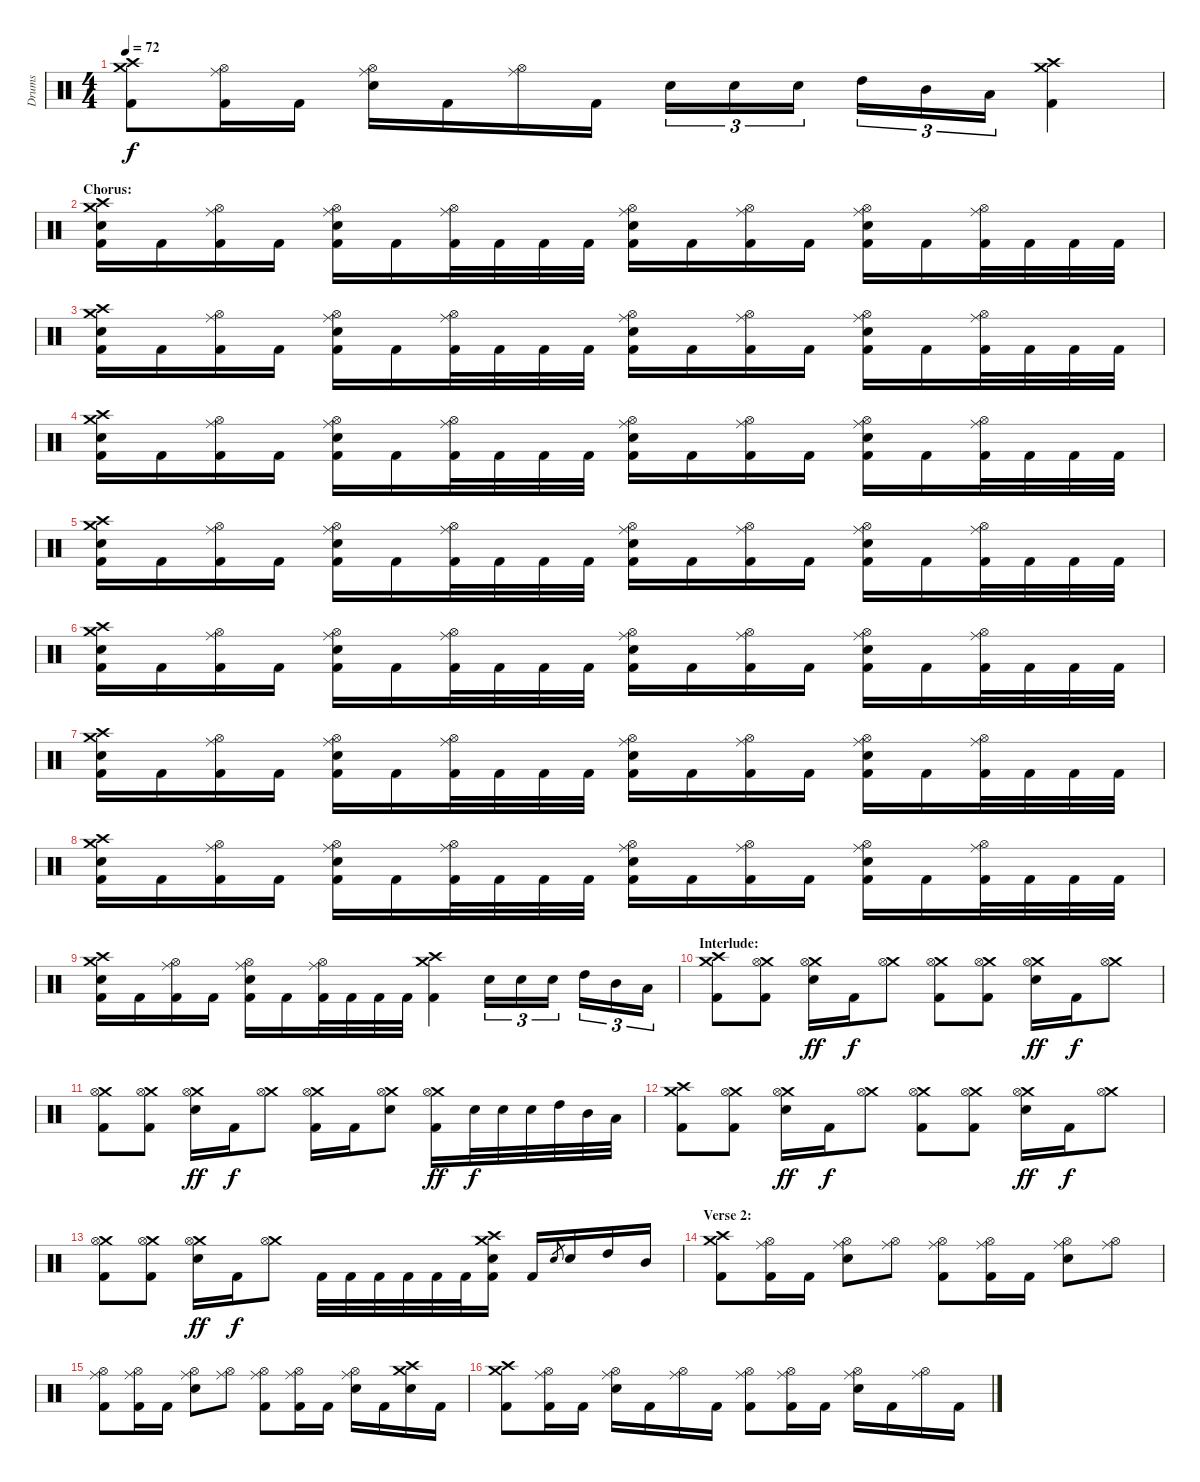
\track ("Drums" "Drums") {instrument percussion}
\staff {score}
\articulation defaults
\ts (4 4)
\tempo 72
\clef neutral
\ks c
("Crash medium (hit)" "Crash high (hit)" "Kick (hit) 2").8{dy f} ("Ride (middle)" "Hi-Hat (open)" "Kick (hit) 2").16 "Kick (hit) 2".16 ("Ride (middle)" "Hi-Hat (open)" "Electric Snare (hit)").16 "Kick (hit) 2".16 ("Ride (middle)" "Hi-Hat (open)").16 "Kick (hit) 2".16 "Electric Snare (hit)".16{tu (3 2)} "Electric Snare (hit)".16{tu (3 2)} "Electric Snare (hit)".16{tu (3 2)} "High Tom (hit)".16{tu (3 2)} "Mid Tom (hit)".16{tu (3 2)} "Low Tom (hit)".16{tu (3 2)} ("Crash medium (hit)" "Crash high (hit)" "Kick (hit) 2").4 |
\section ("" "Chorus:")
("Crash medium (hit)" "Crash high (hit)" "Electric Snare (hit)" "Kick (hit) 2").16 "Kick (hit) 2".16 ("Ride (middle)" "Hi-Hat (open)" "Kick (hit) 2").16 "Kick (hit) 2".16 ("Ride (middle)" "Hi-Hat (open)" "Electric Snare (hit)" "Kick (hit) 2").16 "Kick (hit) 2".16 ("Ride (middle)" "Hi-Hat (open)" "Kick (hit) 2").32 "Kick (hit) 2".32 "Kick (hit) 2".32 "Kick (hit) 2".32 ("Ride (middle)" "Hi-Hat (open)" "Electric Snare (hit)" "Kick (hit) 2").16 "Kick (hit) 2".16 ("Ride (middle)" "Hi-Hat (open)" "Kick (hit) 2").16 "Kick (hit) 2".16 ("Ride (middle)" "Hi-Hat (open)" "Electric Snare (hit)" "Kick (hit) 2").16 "Kick (hit) 2".16 ("Ride (middle)" "Hi-Hat (open)" "Kick (hit) 2").32 "Kick (hit) 2".32 "Kick (hit) 2".32 "Kick (hit) 2".32 |
("Crash medium (hit)" "Crash high (hit)" "Electric Snare (hit)" "Kick (hit) 2").16 "Kick (hit) 2".16 ("Ride (middle)" "Hi-Hat (open)" "Kick (hit) 2").16 "Kick (hit) 2".16 ("Ride (middle)" "Hi-Hat (open)" "Electric Snare (hit)" "Kick (hit) 2").16 "Kick (hit) 2".16 ("Ride (middle)" "Hi-Hat (open)" "Kick (hit) 2").32 "Kick (hit) 2".32 "Kick (hit) 2".32 "Kick (hit) 2".32 ("Ride (middle)" "Hi-Hat (open)" "Electric Snare (hit)" "Kick (hit) 2").16 "Kick (hit) 2".16 ("Ride (middle)" "Hi-Hat (open)" "Kick (hit) 2").16 "Kick (hit) 2".16 ("Ride (middle)" "Hi-Hat (open)" "Electric Snare (hit)" "Kick (hit) 2").16 "Kick (hit) 2".16 ("Ride (middle)" "Hi-Hat (open)" "Kick (hit) 2").32 "Kick (hit) 2".32 "Kick (hit) 2".32 "Kick (hit) 2".32 |
("Crash medium (hit)" "Crash high (hit)" "Electric Snare (hit)" "Kick (hit) 2").16 "Kick (hit) 2".16 ("Ride (middle)" "Hi-Hat (open)" "Kick (hit) 2").16 "Kick (hit) 2".16 ("Ride (middle)" "Hi-Hat (open)" "Electric Snare (hit)" "Kick (hit) 2").16 "Kick (hit) 2".16 ("Ride (middle)" "Hi-Hat (open)" "Kick (hit) 2").32 "Kick (hit) 2".32 "Kick (hit) 2".32 "Kick (hit) 2".32 ("Ride (middle)" "Hi-Hat (open)" "Electric Snare (hit)" "Kick (hit) 2").16 "Kick (hit) 2".16 ("Ride (middle)" "Hi-Hat (open)" "Kick (hit) 2").16 "Kick (hit) 2".16 ("Ride (middle)" "Hi-Hat (open)" "Electric Snare (hit)" "Kick (hit) 2").16 "Kick (hit) 2".16 ("Ride (middle)" "Hi-Hat (open)" "Kick (hit) 2").32 "Kick (hit) 2".32 "Kick (hit) 2".32 "Kick (hit) 2".32 |
("Crash medium (hit)" "Crash high (hit)" "Electric Snare (hit)" "Kick (hit) 2").16 "Kick (hit) 2".16 ("Ride (middle)" "Hi-Hat (open)" "Kick (hit) 2").16 "Kick (hit) 2".16 ("Ride (middle)" "Hi-Hat (open)" "Electric Snare (hit)" "Kick (hit) 2").16 "Kick (hit) 2".16 ("Ride (middle)" "Hi-Hat (open)" "Kick (hit) 2").32 "Kick (hit) 2".32 "Kick (hit) 2".32 "Kick (hit) 2".32 ("Ride (middle)" "Hi-Hat (open)" "Electric Snare (hit)" "Kick (hit) 2").16 "Kick (hit) 2".16 ("Ride (middle)" "Hi-Hat (open)" "Kick (hit) 2").16 "Kick (hit) 2".16 ("Ride (middle)" "Hi-Hat (open)" "Electric Snare (hit)" "Kick (hit) 2").16 "Kick (hit) 2".16 ("Ride (middle)" "Hi-Hat (open)" "Kick (hit) 2").32 "Kick (hit) 2".32 "Kick (hit) 2".32 "Kick (hit) 2".32 |
("Crash medium (hit)" "Crash high (hit)" "Electric Snare (hit)" "Kick (hit) 2").16 "Kick (hit) 2".16 ("Ride (middle)" "Hi-Hat (open)" "Kick (hit) 2").16 "Kick (hit) 2".16 ("Ride (middle)" "Hi-Hat (open)" "Electric Snare (hit)" "Kick (hit) 2").16 "Kick (hit) 2".16 ("Ride (middle)" "Hi-Hat (open)" "Kick (hit) 2").32 "Kick (hit) 2".32 "Kick (hit) 2".32 "Kick (hit) 2".32 ("Ride (middle)" "Hi-Hat (open)" "Electric Snare (hit)" "Kick (hit) 2").16 "Kick (hit) 2".16 ("Ride (middle)" "Hi-Hat (open)" "Kick (hit) 2").16 "Kick (hit) 2".16 ("Ride (middle)" "Hi-Hat (open)" "Electric Snare (hit)" "Kick (hit) 2").16 "Kick (hit) 2".16 ("Ride (middle)" "Hi-Hat (open)" "Kick (hit) 2").32 "Kick (hit) 2".32 "Kick (hit) 2".32 "Kick (hit) 2".32 |
("Crash medium (hit)" "Crash high (hit)" "Electric Snare (hit)" "Kick (hit) 2").16 "Kick (hit) 2".16 ("Ride (middle)" "Hi-Hat (open)" "Kick (hit) 2").16 "Kick (hit) 2".16 ("Ride (middle)" "Hi-Hat (open)" "Electric Snare (hit)" "Kick (hit) 2").16 "Kick (hit) 2".16 ("Ride (middle)" "Hi-Hat (open)" "Kick (hit) 2").32 "Kick (hit) 2".32 "Kick (hit) 2".32 "Kick (hit) 2".32 ("Ride (middle)" "Hi-Hat (open)" "Electric Snare (hit)" "Kick (hit) 2").16 "Kick (hit) 2".16 ("Ride (middle)" "Hi-Hat (open)" "Kick (hit) 2").16 "Kick (hit) 2".16 ("Ride (middle)" "Hi-Hat (open)" "Electric Snare (hit)" "Kick (hit) 2").16 "Kick (hit) 2".16 ("Ride (middle)" "Hi-Hat (open)" "Kick (hit) 2").32 "Kick (hit) 2".32 "Kick (hit) 2".32 "Kick (hit) 2".32 |
("Crash medium (hit)" "Crash high (hit)" "Electric Snare (hit)" "Kick (hit) 2").16 "Kick (hit) 2".16 ("Ride (middle)" "Hi-Hat (open)" "Kick (hit) 2").16 "Kick (hit) 2".16 ("Ride (middle)" "Hi-Hat (open)" "Electric Snare (hit)" "Kick (hit) 2").16 "Kick (hit) 2".16 ("Ride (middle)" "Hi-Hat (open)" "Kick (hit) 2").32 "Kick (hit) 2".32 "Kick (hit) 2".32 "Kick (hit) 2".32 ("Ride (middle)" "Hi-Hat (open)" "Electric Snare (hit)" "Kick (hit) 2").16 "Kick (hit) 2".16 ("Ride (middle)" "Hi-Hat (open)" "Kick (hit) 2").16 "Kick (hit) 2".16 ("Ride (middle)" "Hi-Hat (open)" "Electric Snare (hit)" "Kick (hit) 2").16 "Kick (hit) 2".16 ("Ride (middle)" "Hi-Hat (open)" "Kick (hit) 2").32 "Kick (hit) 2".32 "Kick (hit) 2".32 "Kick (hit) 2".32 |
("Crash medium (hit)" "Crash high (hit)" "Electric Snare (hit)" "Kick (hit) 2").16 "Kick (hit) 2".16 ("Ride (middle)" "Hi-Hat (open)" "Kick (hit) 2").16 "Kick (hit) 2".16 ("Ride (middle)" "Hi-Hat (open)" "Electric Snare (hit)" "Kick (hit) 2").16 "Kick (hit) 2".16 ("Ride (middle)" "Hi-Hat (open)" "Kick (hit) 2").32 "Kick (hit) 2".32 "Kick (hit) 2".32 "Kick (hit) 2".32 ("Crash medium (hit)" "Crash high (hit)" "Kick (hit) 2").4 "Electric Snare (hit)".16{tu (3 2)} "Electric Snare (hit)".16{tu (3 2)} "Electric Snare (hit)".16{tu (3 2)} "High Tom (hit)".16{tu (3 2)} "Mid Tom (hit)".16{tu (3 2)} "Low Tom (hit)".16{tu (3 2)} |
\section ("" "Interlude:")
("Crash medium (hit)" "Crash high (hit)" "Kick (hit) 2").8 ("Crash medium (hit)" "Hi-Hat (open)" "Kick (hit) 2").8 ("Crash medium (hit)" "Hi-Hat (open)" "Electric Snare (hit)").16{dy ff} "Kick (hit) 2".16{dy f} ("Crash medium (hit)" "Hi-Hat (open)").8 ("Crash medium (hit)" "Hi-Hat (open)" "Kick (hit) 2").8 ("Crash medium (hit)" "Hi-Hat (open)" "Kick (hit) 2").8 ("Crash medium (hit)" "Hi-Hat (open)" "Electric Snare (hit)").16{dy ff} "Kick (hit) 2".16{dy f} ("Crash medium (hit)" "Hi-Hat (open)").8 |
("Crash medium (hit)" "Hi-Hat (open)" "Kick (hit) 2").8 ("Crash medium (hit)" "Hi-Hat (open)" "Kick (hit) 2").8 ("Crash medium (hit)" "Hi-Hat (open)" "Electric Snare (hit)").16{dy ff} "Kick (hit) 2".16{dy f} ("Crash medium (hit)" "Hi-Hat (open)").8 ("Crash medium (hit)" "Hi-Hat (open)" "Kick (hit) 2").16 "Kick (hit) 2".16 ("Crash medium (hit)" "Hi-Hat (open)" "Electric Snare (hit)").8 ("Crash medium (hit)" "Hi-Hat (open)" "Kick (hit) 2").16{dy ff} "Electric Snare (hit)".32{dy f} "Electric Snare (hit)".32 "Electric Snare (hit)".32 "High Tom (hit)".32 "Mid Tom (hit)".32 "Low Tom (hit)".32 |
("Crash medium (hit)" "Crash high (hit)" "Kick (hit) 2").8 ("Crash medium (hit)" "Hi-Hat (open)" "Kick (hit) 2").8 ("Crash medium (hit)" "Hi-Hat (open)" "Electric Snare (hit)").16{dy ff} "Kick (hit) 2".16{dy f} ("Crash medium (hit)" "Hi-Hat (open)").8 ("Crash medium (hit)" "Hi-Hat (open)" "Kick (hit) 2").8 ("Crash medium (hit)" "Hi-Hat (open)" "Kick (hit) 2").8 ("Crash medium (hit)" "Hi-Hat (open)" "Electric Snare (hit)").16{dy ff} "Kick (hit) 2".16{dy f} ("Crash medium (hit)" "Hi-Hat (open)").8 |
("Crash medium (hit)" "Hi-Hat (open)" "Kick (hit) 2").8 ("Crash medium (hit)" "Hi-Hat (open)" "Kick (hit) 2").8 ("Crash medium (hit)" "Hi-Hat (open)" "Electric Snare (hit)").16{dy ff} "Kick (hit) 2".16{dy f} ("Crash medium (hit)" "Hi-Hat (open)").8 "Kick (hit) 2".32 "Kick (hit) 2".32 "Kick (hit) 2".32 "Kick (hit) 2".32 "Kick (hit) 2".32 "Kick (hit) 2".32 ("Crash medium (hit)" "Crash high (hit)" "Electric Snare (hit)" "Kick (hit) 2").16 "Kick (hit) 2".16 "Electric Snare (hit)".8{gr} "Electric Snare (hit)".16 "High Tom (hit)".16 "Mid Tom (hit)".16 |
\section ("" "Verse 2:")
("Crash medium (hit)" "Crash high (hit)" "Kick (hit) 2").8 ("Ride (middle)" "Hi-Hat (open)" "Kick (hit) 2").16 "Kick (hit) 2".16 ("Ride (middle)" "Hi-Hat (open)" "Electric Snare (hit)").8 ("Ride (middle)" "Hi-Hat (open)").8 ("Ride (middle)" "Hi-Hat (open)" "Kick (hit) 2").8 ("Ride (middle)" "Hi-Hat (open)" "Kick (hit) 2").16 "Kick (hit) 2".16 ("Ride (middle)" "Hi-Hat (open)" "Electric Snare (hit)").8 ("Ride (middle)" "Hi-Hat (open)").8 |
("Ride (middle)" "Hi-Hat (open)" "Kick (hit) 2").8 ("Ride (middle)" "Hi-Hat (open)" "Kick (hit) 2").16 "Kick (hit) 2".16 ("Ride (middle)" "Hi-Hat (open)" "Electric Snare (hit)").8 ("Ride (middle)" "Hi-Hat (open)").8 ("Ride (middle)" "Hi-Hat (open)" "Kick (hit) 2").8 ("Ride (middle)" "Hi-Hat (open)" "Kick (hit) 2").16 "Kick (hit) 2".16 ("Ride (middle)" "Hi-Hat (open)" "Electric Snare (hit)").16 "Kick (hit) 2".16 ("Crash medium (hit)" "Crash high (hit)" "Electric Snare (hit)").16 "Kick (hit) 2".16 |
("Crash medium (hit)" "Crash high (hit)" "Kick (hit) 2").8 ("Ride (middle)" "Hi-Hat (open)" "Kick (hit) 2").16 "Kick (hit) 2".16 ("Ride (middle)" "Hi-Hat (open)" "Electric Snare (hit)").16 "Kick (hit) 2".16 ("Ride (middle)" "Hi-Hat (open)").16 "Kick (hit) 2".16 ("Ride (middle)" "Hi-Hat (open)" "Kick (hit) 2").8 ("Ride (middle)" "Hi-Hat (open)" "Kick (hit) 2").16 "Kick (hit) 2".16 ("Ride (middle)" "Hi-Hat (open)" "Electric Snare (hit)").16 "Kick (hit) 2".16 ("Ride (middle)" "Hi-Hat (open)").16 "Kick (hit) 2".16
